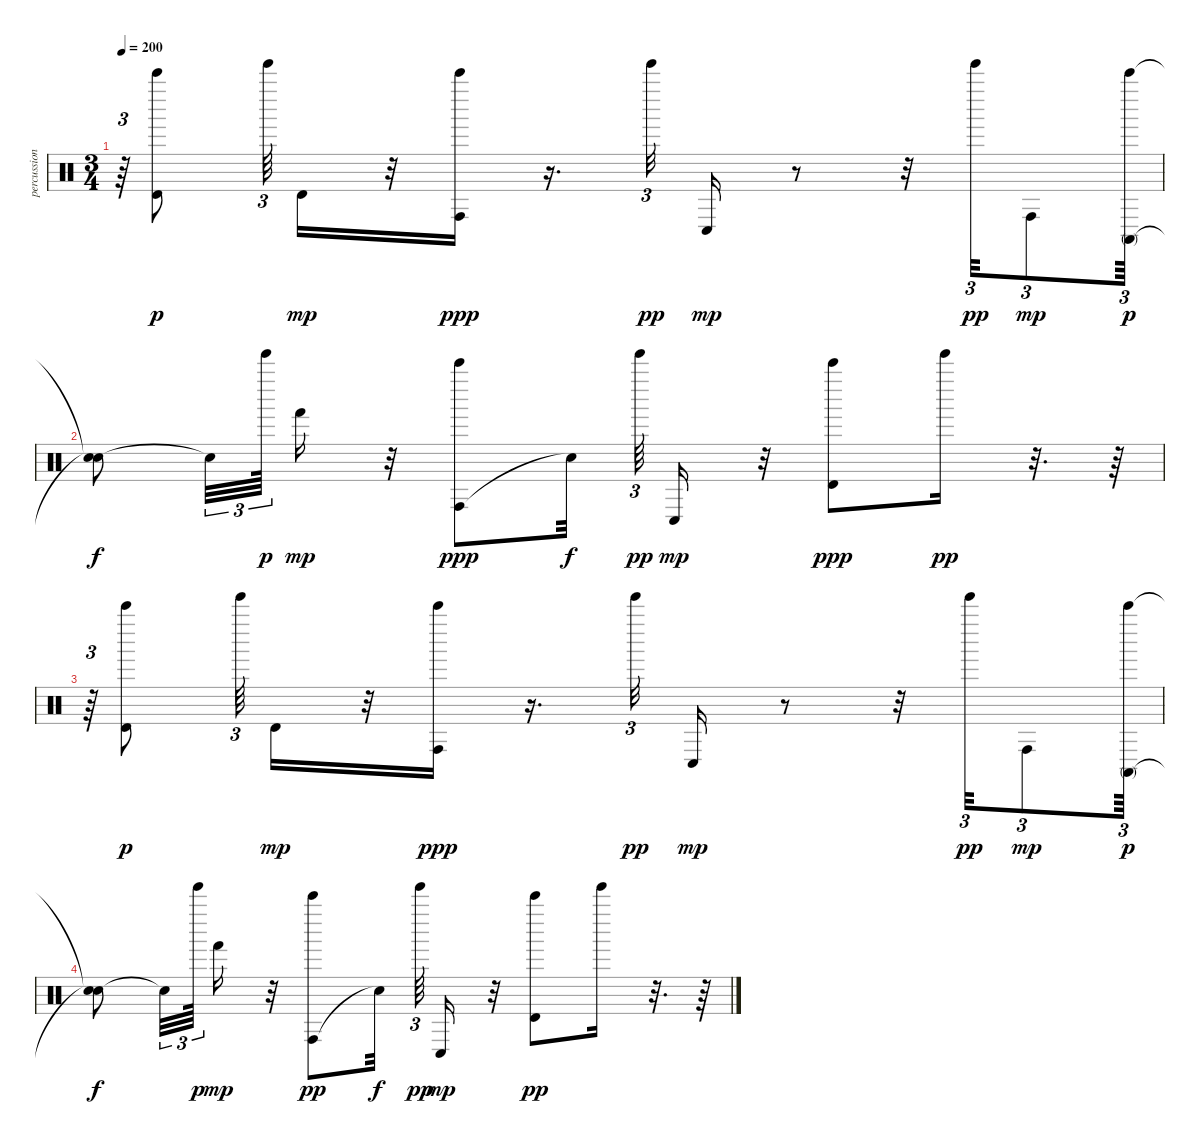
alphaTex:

\track ("percussion" "percussion") {instrument percussion}
\staff {score}
\articulation defaults
\ts (3 4)
\tempo 200
\clef neutral
\ks c
r.64{tu (3 2) dy pp} ("Timbale high (hit)" "Bell Tree (hit)").8{dy p} "Tinkle Bell (hit)".64{tu (3 2)} "Timbale high (hit)".16{dy mp} r.32 ("Conga high (hit)" "Bell Tree (hit)").16{dy ppp} r.16{d} "Tinkle Bell (hit)".32{tu (3 2) dy pp} "Conga low (hit)".16{dy mp} r.8 r.32 "Tinkle Bell (hit)".32{tu (3 2) dy pp} "Conga high (hit)".8{tu (3 2) dy mp} ("Conga high (mute)" "Bell Tree (hit)").64{tu (3 2) dy p} |
("Snare (hit)"{t} "Snare (hit)"{t}).8{dy f} "Snare (hit)"{t}.32{tu (3 2)} "Tinkle Bell (hit)".64{tu (3 2) dy p} "Hand (hit)".16{dy mp} r.32 ("Conga high (hit)" "Bell Tree (hit)").8{dy ppp} "Snare (hit)"{t}.32{dy f} "Tinkle Bell (hit)".64{tu (3 2) dy pp} "Conga low (hit)".16{dy mp} r.32 ("Timbale high (hit)" "Bell Tree (hit)").8{dy ppp} "Tinkle Bell (hit)".16{dy pp} r.32{d} r.64 |
r.64{tu (3 2)} ("Timbale high (hit)" "Bell Tree (hit)").8{dy p} "Tinkle Bell (hit)".64{tu (3 2)} "Timbale high (hit)".16{dy mp} r.32 ("Conga high (hit)" "Bell Tree (hit)").16{dy ppp} r.16{d} "Tinkle Bell (hit)".32{tu (3 2) dy pp} "Conga low (hit)".16{dy mp} r.8 r.32 "Tinkle Bell (hit)".32{tu (3 2) dy pp} "Conga high (hit)".8{tu (3 2) dy mp} ("Conga high (mute)" "Bell Tree (hit)").64{tu (3 2) dy p} |
("Snare (hit)"{t} "Snare (hit)"{t}).8{dy f} "Snare (hit)"{t}.32{tu (3 2)} "Tinkle Bell (hit)".64{tu (3 2) dy p} "Hand (hit)".16{dy mp} r.32 ("Conga high (hit)" "Bell Tree (hit)").8{dy pp} "Snare (hit)"{t}.32{dy f} "Tinkle Bell (hit)".64{tu (3 2) dy pp} "Conga low (hit)".16{dy mp} r.32 ("Timbale high (hit)" "Bell Tree (hit)").8{dy pp} "Tinkle Bell (hit)".16 r.32{d} r.64
